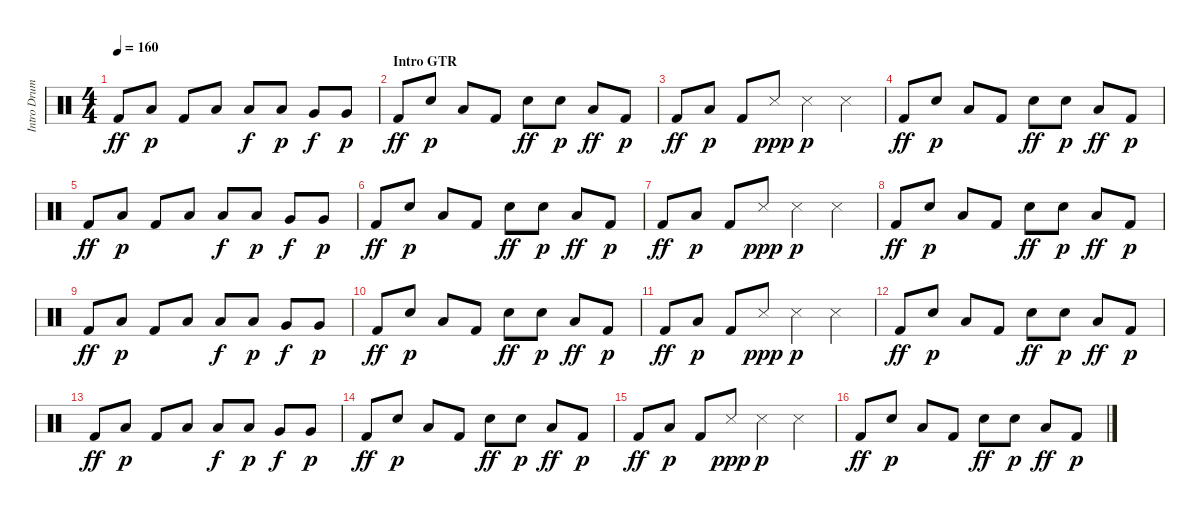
\track ("Intro Drums" "Intro Drum") {instrument percussion}
\staff {score}
\articulation defaults
\ts (4 4)
\tempo 160
\clef neutral
\ks aminor "Kick (hit) 2".8{dy ff} "Low Floor Tom (hit)".8{dy p} "Kick (hit) 2".8 "Low Floor Tom (hit)".8 "Low Tom (hit)".8{dy f} "Low Tom (hit)".8{dy p} "Very Low Tom (hit)".8{dy f} "Very Low Tom (hit)".8{dy p}
|
\section ("" "Intro GTR")
"Kick (hit) 2".8{dy ff} "Snare (hit) 2".8{dy p} "Low Floor Tom (hit)".8 "Kick (hit) 2".8 "Snare (hit) 2".8{dy ff} "Snare (hit) 2".8{dy p} "Low Floor Tom (hit)".8{dy ff} "Kick (hit) 2".8{dy p} |
"Kick (hit) 2".8{dy ff} "Low Floor Tom (hit)".8{dy p} "Kick (hit) 2".8 "Snare (side stick) 3".8{dy ppp} "Snare (side stick) 3".4{dy p} "Snare (side stick) 3".4 |
"Kick (hit) 2".8{dy ff} "Snare (hit) 2".8{dy p} "Low Floor Tom (hit)".8 "Kick (hit) 2".8 "Snare (hit) 2".8{dy ff} "Snare (hit) 2".8{dy p} "Low Floor Tom (hit)".8{dy ff} "Kick (hit) 2".8{dy p} |
"Kick (hit) 2".8{dy ff} "Low Floor Tom (hit)".8{dy p} "Kick (hit) 2".8 "Low Floor Tom (hit)".8 "Low Tom (hit)".8{dy f} "Low Tom (hit)".8{dy p} "Very Low Tom (hit)".8{dy f} "Very Low Tom (hit)".8{dy p} |
"Kick (hit) 2".8{dy ff} "Snare (hit) 2".8{dy p} "Low Floor Tom (hit)".8 "Kick (hit) 2".8 "Snare (hit) 2".8{dy ff} "Snare (hit) 2".8{dy p} "Low Floor Tom (hit)".8{dy ff} "Kick (hit) 2".8{dy p} |
"Kick (hit) 2".8{dy ff} "Low Floor Tom (hit)".8{dy p} "Kick (hit) 2".8 "Snare (side stick) 3".8{dy ppp} "Snare (side stick) 3".4{dy p} "Snare (side stick) 3".4 |
"Kick (hit) 2".8{dy ff} "Snare (hit) 2".8{dy p} "Low Floor Tom (hit)".8 "Kick (hit) 2".8 "Snare (hit) 2".8{dy ff} "Snare (hit) 2".8{dy p} "Low Floor Tom (hit)".8{dy ff} "Kick (hit) 2".8{dy p} |
"Kick (hit) 2".8{dy ff} "Low Floor Tom (hit)".8{dy p} "Kick (hit) 2".8 "Low Floor Tom (hit)".8 "Low Tom (hit)".8{dy f} "Low Tom (hit)".8{dy p} "Very Low Tom (hit)".8{dy f} "Very Low Tom (hit)".8{dy p} |
"Kick (hit) 2".8{dy ff} "Snare (hit) 2".8{dy p} "Low Floor Tom (hit)".8 "Kick (hit) 2".8 "Snare (hit) 2".8{dy ff} "Snare (hit) 2".8{dy p} "Low Floor Tom (hit)".8{dy ff} "Kick (hit) 2".8{dy p} |
"Kick (hit) 2".8{dy ff} "Low Floor Tom (hit)".8{dy p} "Kick (hit) 2".8 "Snare (side stick) 3".8{dy ppp} "Snare (side stick) 3".4{dy p} "Snare (side stick) 3".4 |
"Kick (hit) 2".8{dy ff} "Snare (hit) 2".8{dy p} "Low Floor Tom (hit)".8 "Kick (hit) 2".8 "Snare (hit) 2".8{dy ff} "Snare (hit) 2".8{dy p} "Low Floor Tom (hit)".8{dy ff} "Kick (hit) 2".8{dy p} |
"Kick (hit) 2".8{dy ff} "Low Floor Tom (hit)".8{dy p} "Kick (hit) 2".8 "Low Floor Tom (hit)".8 "Low Tom (hit)".8{dy f} "Low Tom (hit)".8{dy p} "Very Low Tom (hit)".8{dy f} "Very Low Tom (hit)".8{dy p} |
"Kick (hit) 2".8{dy ff} "Snare (hit) 2".8{dy p} "Low Floor Tom (hit)".8 "Kick (hit) 2".8 "Snare (hit) 2".8{dy ff} "Snare (hit) 2".8{dy p} "Low Floor Tom (hit)".8{dy ff} "Kick (hit) 2".8{dy p} |
"Kick (hit) 2".8{dy ff} "Low Floor Tom (hit)".8{dy p} "Kick (hit) 2".8 "Snare (side stick) 3".8{dy ppp} "Snare (side stick) 3".4{dy p} "Snare (side stick) 3".4 |
"Kick (hit) 2".8{dy ff} "Snare (hit) 2".8{dy p} "Low Floor Tom (hit)".8 "Kick (hit) 2".8 "Snare (hit) 2".8{dy ff} "Snare (hit) 2".8{dy p} "Low Floor Tom (hit)".8{dy ff} "Kick (hit) 2".8{dy p}
